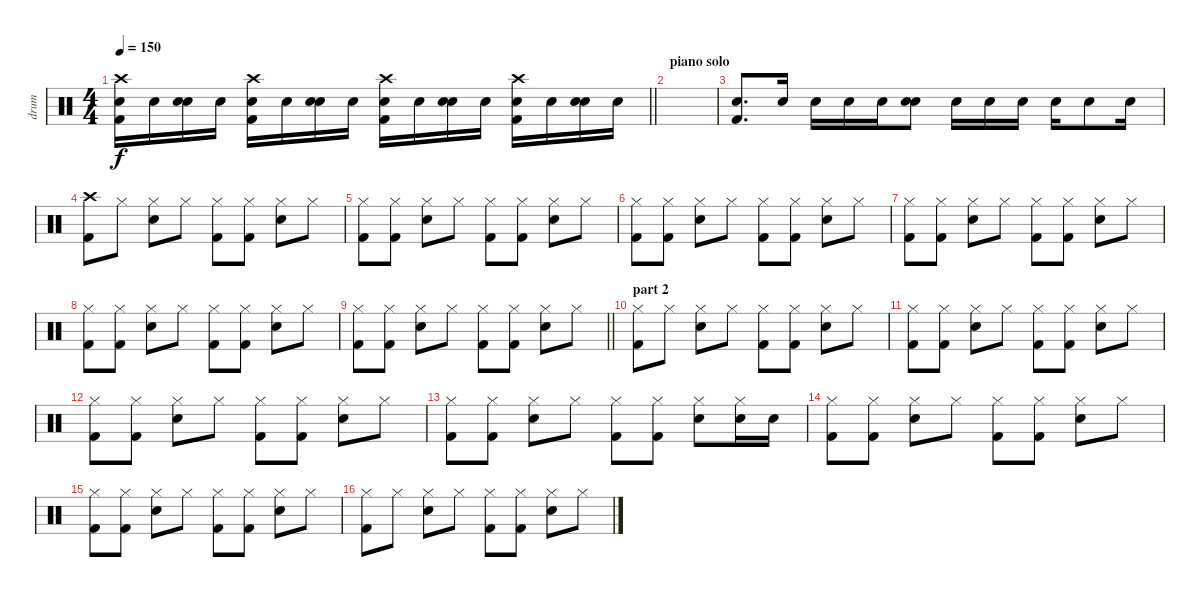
\track ("drum" "drum") {instrument percussion}
\staff {score}
\articulation defaults
\ts (4 4)
\tempo 150
\clef neutral
\barLineRight lightlight
\ks c
("Crash high (hit)" "Snare (hit) 2" "Kick (hit) 2").16{dy f} "Snare (hit) 2".16 ("Snare (hit) 2" "Snare (hit) 2").16 "Snare (hit) 2".16 ("Crash high (hit)" "Snare (hit) 2" "Kick (hit) 2").16 "Snare (hit) 2".16 ("Snare (hit) 2" "Snare (hit) 2").16 "Snare (hit) 2".16 ("Crash high (hit)" "Snare (hit) 2" "Kick (hit) 2").16 "Snare (hit) 2".16 ("Snare (hit) 2" "Snare (hit) 2").16 "Snare (hit) 2".16 ("Crash high (hit)" "Snare (hit) 2" "Kick (hit) 2").16 "Snare (hit) 2".16 ("Snare (hit) 2" "Snare (hit) 2").16 "Snare (hit) 2".16 |
\section ("" "piano solo")
|
("Snare (hit) 2" "Kick (hit) 2").8{d} "Snare (hit) 2".16 "Snare (hit) 2".16 "Snare (hit) 2".16 "Snare (hit) 2".16 ("Snare (hit) 2" "Snare (hit) 2").8 "Snare (hit) 2".16 "Snare (hit) 2".16 "Snare (hit) 2".16 "Snare (hit) 2".16 "Snare (hit) 2".8 "Snare (hit) 2".16 |
("Crash high (hit)" "Kick (hit) 2").8 "Hi-Hat (closed)".8 ("Hi-Hat (closed)" "Snare (hit) 2").8 "Hi-Hat (closed)".8 ("Hi-Hat (closed)" "Kick (hit) 2").8 ("Hi-Hat (closed)" "Kick (hit) 2").8 ("Hi-Hat (closed)" "Snare (hit) 2").8 "Hi-Hat (closed)".8 |
("Hi-Hat (closed)" "Kick (hit) 2").8 ("Hi-Hat (closed)" "Kick (hit) 2").8 ("Hi-Hat (closed)" "Snare (hit) 2").8 "Hi-Hat (closed)".8 ("Hi-Hat (closed)" "Kick (hit) 2").8 ("Hi-Hat (closed)" "Kick (hit) 2").8 ("Hi-Hat (closed)" "Snare (hit) 2").8 "Hi-Hat (closed)".8 |
("Hi-Hat (closed)" "Kick (hit) 2").8 ("Hi-Hat (closed)" "Kick (hit) 2").8 ("Hi-Hat (closed)" "Snare (hit) 2").8 "Hi-Hat (closed)".8 ("Hi-Hat (closed)" "Kick (hit) 2").8 ("Hi-Hat (closed)" "Kick (hit) 2").8 ("Hi-Hat (closed)" "Snare (hit) 2").8 "Hi-Hat (closed)".8 |
("Hi-Hat (closed)" "Kick (hit) 2").8 ("Hi-Hat (closed)" "Kick (hit) 2").8 ("Hi-Hat (closed)" "Snare (hit) 2").8 "Hi-Hat (closed)".8 ("Hi-Hat (closed)" "Kick (hit) 2").8 ("Hi-Hat (closed)" "Kick (hit) 2").8 ("Hi-Hat (closed)" "Snare (hit) 2").8 "Hi-Hat (closed)".8 |
("Hi-Hat (closed)" "Kick (hit) 2").8 ("Hi-Hat (closed)" "Kick (hit) 2").8 ("Hi-Hat (closed)" "Snare (hit) 2").8 "Hi-Hat (closed)".8 ("Hi-Hat (closed)" "Kick (hit) 2").8 ("Hi-Hat (closed)" "Kick (hit) 2").8 ("Hi-Hat (closed)" "Snare (hit) 2").8 "Hi-Hat (closed)".8 |
\barLineRight lightlight
("Hi-Hat (closed)" "Kick (hit) 2").8 ("Hi-Hat (closed)" "Kick (hit) 2").8 ("Hi-Hat (closed)" "Snare (hit) 2").8 "Hi-Hat (closed)".8 ("Hi-Hat (closed)" "Kick (hit) 2").8 ("Hi-Hat (closed)" "Kick (hit) 2").8 ("Hi-Hat (closed)" "Snare (hit) 2").8 "Hi-Hat (closed)".8 |
\section ("" "part 2")
("Hi-Hat (closed)" "Kick (hit) 2").8 "Hi-Hat (closed)".8 ("Hi-Hat (closed)" "Snare (hit) 2").8 "Hi-Hat (closed)".8 ("Hi-Hat (closed)" "Kick (hit) 2").8 ("Hi-Hat (closed)" "Kick (hit) 2").8 ("Hi-Hat (closed)" "Snare (hit) 2").8 "Hi-Hat (closed)".8 |
("Hi-Hat (closed)" "Kick (hit) 2").8 ("Hi-Hat (closed)" "Kick (hit) 2").8 ("Hi-Hat (closed)" "Snare (hit) 2").8 "Hi-Hat (closed)".8 ("Hi-Hat (closed)" "Kick (hit) 2").8 ("Hi-Hat (closed)" "Kick (hit) 2").8 ("Hi-Hat (closed)" "Snare (hit) 2").8 "Hi-Hat (closed)".8 |
("Hi-Hat (closed)" "Kick (hit) 2").8 ("Hi-Hat (closed)" "Kick (hit) 2").8 ("Hi-Hat (closed)" "Snare (hit) 2").8 "Hi-Hat (closed)".8 ("Hi-Hat (closed)" "Kick (hit) 2").8 ("Hi-Hat (closed)" "Kick (hit) 2").8 ("Hi-Hat (closed)" "Snare (hit) 2").8 "Hi-Hat (closed)".8 |
("Hi-Hat (closed)" "Kick (hit) 2").8 ("Hi-Hat (closed)" "Kick (hit) 2").8 ("Hi-Hat (closed)" "Snare (hit) 2").8 "Hi-Hat (closed)".8 ("Hi-Hat (closed)" "Kick (hit) 2").8 ("Hi-Hat (closed)" "Kick (hit) 2").8 ("Hi-Hat (closed)" "Snare (hit) 2").8 ("Hi-Hat (closed)" "Snare (hit) 2").16 "Snare (hit) 2".16 |
("Hi-Hat (closed)" "Kick (hit) 2").8 ("Hi-Hat (closed)" "Kick (hit) 2").8 ("Hi-Hat (closed)" "Snare (hit) 2").8 "Hi-Hat (closed)".8 ("Hi-Hat (closed)" "Kick (hit) 2").8 ("Hi-Hat (closed)" "Kick (hit) 2").8 ("Hi-Hat (closed)" "Snare (hit) 2").8 "Hi-Hat (closed)".8 |
("Hi-Hat (closed)" "Kick (hit) 2").8 ("Hi-Hat (closed)" "Kick (hit) 2").8 ("Hi-Hat (closed)" "Snare (hit) 2").8 "Hi-Hat (closed)".8 ("Hi-Hat (closed)" "Kick (hit) 2").8 ("Hi-Hat (closed)" "Kick (hit) 2").8 ("Hi-Hat (closed)" "Snare (hit) 2").8 "Hi-Hat (closed)".8 |
("Hi-Hat (closed)" "Kick (hit) 2").8 "Hi-Hat (closed)".8 ("Hi-Hat (closed)" "Snare (hit) 2").8 "Hi-Hat (closed)".8 ("Hi-Hat (closed)" "Kick (hit) 2").8 ("Hi-Hat (closed)" "Kick (hit) 2").8 ("Hi-Hat (closed)" "Snare (hit) 2").8 "Hi-Hat (closed)".8
